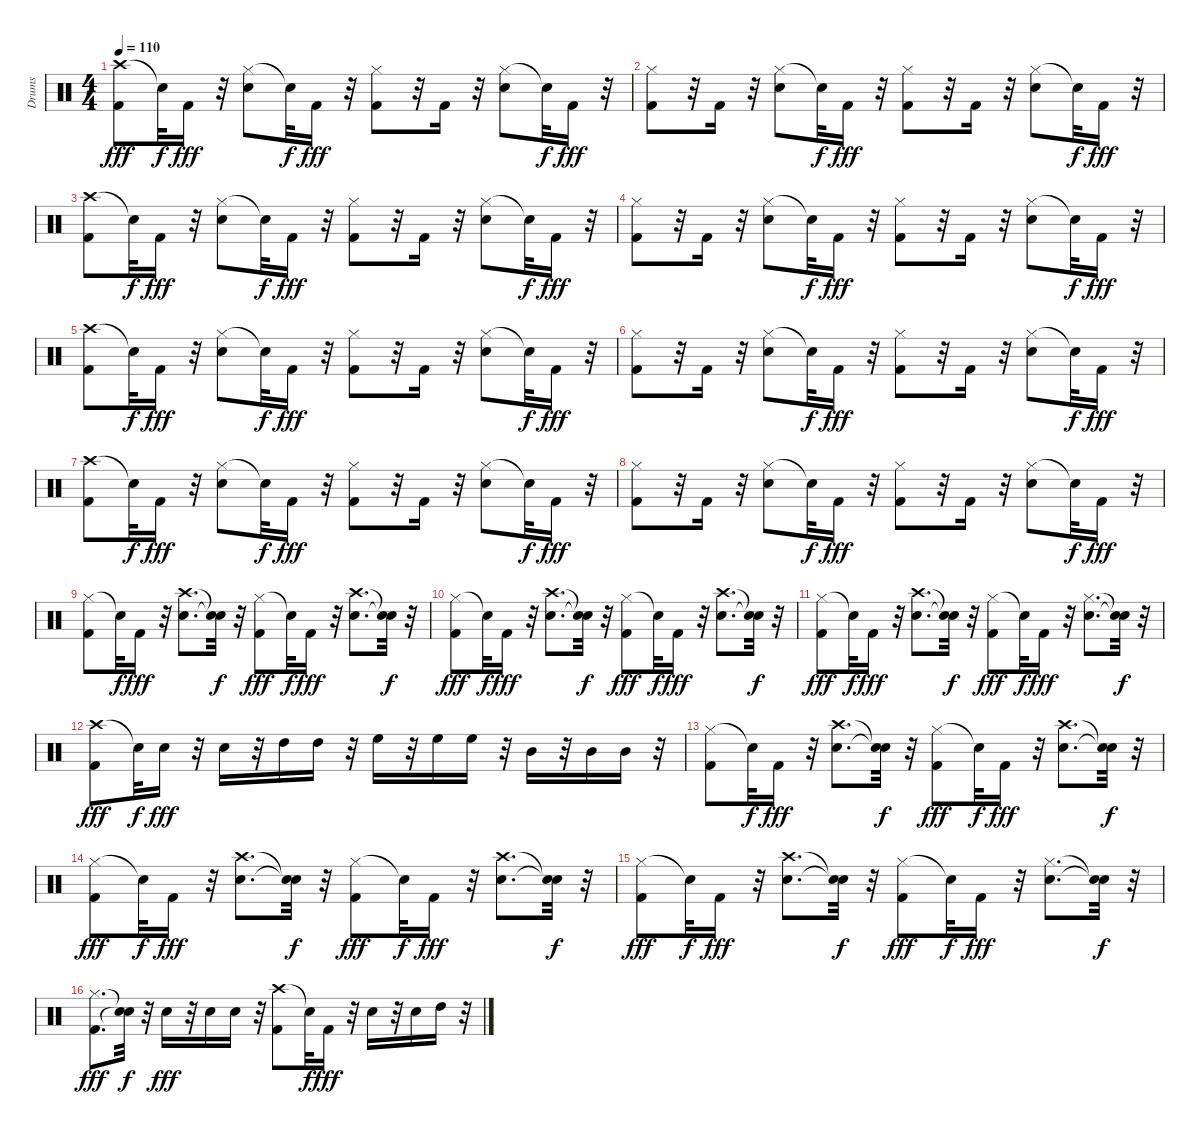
\track ("Drums" "Drums") {instrument percussion}
\staff {score}
\articulation defaults
\ts (4 4)
\tempo 110
\clef neutral
\ks c
("Crash high (hit)" "Kick (hit) 2").8{dy fff} "Snare (hit)"{t}.32{dy f} "Kick (hit) 2".16{dy fff} r.32 ("Hi-Hat (closed)" "Snare (hit) 2").8 "Snare (hit)"{t}.32{dy f} "Kick (hit) 2".16{dy fff} r.32 ("Kick (hit) 2" "Hi-Hat (closed)").8 r.32 "Kick (hit) 2".16 r.32 ("Hi-Hat (closed)" "Snare (hit) 2").8 "Snare (hit)"{t}.32{dy f} "Kick (hit) 2".16{dy fff} r.32 |
("Kick (hit) 2" "Hi-Hat (closed)").8 r.32 "Kick (hit) 2".16 r.32 ("Hi-Hat (closed)" "Snare (hit) 2").8 "Snare (hit)"{t}.32{dy f} "Kick (hit) 2".16{dy fff} r.32 ("Kick (hit) 2" "Hi-Hat (closed)").8 r.32 "Kick (hit) 2".16 r.32 ("Hi-Hat (closed)" "Snare (hit) 2").8 "Snare (hit)"{t}.32{dy f} "Kick (hit) 2".16{dy fff} r.32 |
("Crash high (hit)" "Kick (hit) 2").8 "Snare (hit)"{t}.32{dy f} "Kick (hit) 2".16{dy fff} r.32 ("Hi-Hat (closed)" "Snare (hit) 2").8 "Snare (hit)"{t}.32{dy f} "Kick (hit) 2".16{dy fff} r.32 ("Kick (hit) 2" "Hi-Hat (closed)").8 r.32 "Kick (hit) 2".16 r.32 ("Hi-Hat (closed)" "Snare (hit) 2").8 "Snare (hit)"{t}.32{dy f} "Kick (hit) 2".16{dy fff} r.32 |
("Kick (hit) 2" "Hi-Hat (closed)").8 r.32 "Kick (hit) 2".16 r.32 ("Hi-Hat (closed)" "Snare (hit) 2").8 "Snare (hit)"{t}.32{dy f} "Kick (hit) 2".16{dy fff} r.32 ("Kick (hit) 2" "Hi-Hat (closed)").8 r.32 "Kick (hit) 2".16 r.32 ("Hi-Hat (closed)" "Snare (hit) 2").8 "Snare (hit)"{t}.32{dy f} "Kick (hit) 2".16{dy fff} r.32 |
("Crash high (hit)" "Kick (hit) 2").8 "Snare (hit)"{t}.32{dy f} "Kick (hit) 2".16{dy fff} r.32 ("Hi-Hat (closed)" "Snare (hit) 2").8 "Snare (hit)"{t}.32{dy f} "Kick (hit) 2".16{dy fff} r.32 ("Kick (hit) 2" "Hi-Hat (closed)").8 r.32 "Kick (hit) 2".16 r.32 ("Hi-Hat (closed)" "Snare (hit) 2").8 "Snare (hit)"{t}.32{dy f} "Kick (hit) 2".16{dy fff} r.32 |
("Kick (hit) 2" "Hi-Hat (closed)").8 r.32 "Kick (hit) 2".16 r.32 ("Hi-Hat (closed)" "Snare (hit) 2").8 "Snare (hit)"{t}.32{dy f} "Kick (hit) 2".16{dy fff} r.32 ("Kick (hit) 2" "Hi-Hat (closed)").8 r.32 "Kick (hit) 2".16 r.32 ("Hi-Hat (closed)" "Snare (hit) 2").8 "Snare (hit)"{t}.32{dy f} "Kick (hit) 2".16{dy fff} r.32 |
("Crash high (hit)" "Kick (hit) 2").8 "Snare (hit)"{t}.32{dy f} "Kick (hit) 2".16{dy fff} r.32 ("Hi-Hat (closed)" "Snare (hit) 2").8 "Snare (hit)"{t}.32{dy f} "Kick (hit) 2".16{dy fff} r.32 ("Kick (hit) 2" "Hi-Hat (closed)").8 r.32 "Kick (hit) 2".16 r.32 ("Hi-Hat (closed)" "Snare (hit) 2").8 "Snare (hit)"{t}.32{dy f} "Kick (hit) 2".16{dy fff} r.32 |
("Kick (hit) 2" "Hi-Hat (closed)").8 r.32 "Kick (hit) 2".16 r.32 ("Hi-Hat (closed)" "Snare (hit) 2").8 "Snare (hit)"{t}.32{dy f} "Kick (hit) 2".16{dy fff} r.32 ("Kick (hit) 2" "Hi-Hat (closed)").8 r.32 "Kick (hit) 2".16 r.32 ("Hi-Hat (closed)" "Snare (hit) 2").8 "Snare (hit)"{t}.32{dy f} "Kick (hit) 2".16{dy fff} r.32 |
("Hi-Hat (closed)" "Kick (hit) 2").8 "Snare (hit)"{t}.32{dy f} "Kick (hit) 2".16{dy fff} r.32 ("Crash high (hit)" "Snare (hit) 2").8{d} ("Snare (hit)"{t} "Snare (hit)"{t}).32{dy f} r.32 ("Hi-Hat (closed)" "Kick (hit) 2").8{dy fff} "Snare (hit)"{t}.32{dy f} "Kick (hit) 2".16{dy fff} r.32 ("Crash high (hit)" "Snare (hit) 2").8{d} ("Snare (hit)"{t} "Snare (hit)"{t}).32{dy f} r.32 |
("Hi-Hat (closed)" "Kick (hit) 2").8{dy fff} "Snare (hit)"{t}.32{dy f} "Kick (hit) 2".16{dy fff} r.32 ("Crash high (hit)" "Snare (hit) 2").8{d} ("Snare (hit)"{t} "Snare (hit)"{t}).32{dy f} r.32 ("Hi-Hat (closed)" "Kick (hit) 2").8{dy fff} "Snare (hit)"{t}.32{dy f} "Kick (hit) 2".16{dy fff} r.32 ("Crash high (hit)" "Snare (hit) 2").8{d} ("Snare (hit)"{t} "Snare (hit)"{t}).32{dy f} r.32 |
("Hi-Hat (closed)" "Kick (hit) 2").8{dy fff} "Snare (hit)"{t}.32{dy f} "Kick (hit) 2".16{dy fff} r.32 ("Crash high (hit)" "Snare (hit) 2").8{d} ("Snare (hit)"{t} "Snare (hit)"{t}).32{dy f} r.32 ("Hi-Hat (closed)" "Kick (hit) 2").8{dy fff} "Snare (hit)"{t}.32{dy f} "Kick (hit) 2".16{dy fff} r.32 ("Snare (hit) 2" "Hi-Hat (closed)").8{d} ("Snare (hit)"{t} "Snare (hit)"{t}).32{dy f} r.32 |
("Crash high (hit)" "Kick (hit) 2").8{dy fff} "Snare (hit)"{t}.32{dy f} "Snare (hit) 2".16{dy fff} r.32 "Snare (hit) 2".16 r.32 "High Tom (hit)".16 "High Tom (hit)".16 r.32 "High Floor Tom (hit)".16 r.32 "High Floor Tom (hit)".16 "High Floor Tom (hit)".16 r.32 "Mid Tom (hit)".16 r.32 "Mid Tom (hit)".16 "Mid Tom (hit)".16 r.32 |
("Hi-Hat (closed)" "Kick (hit) 2").8 "Snare (hit)"{t}.32{dy f} "Kick (hit) 2".16{dy fff} r.32 ("Crash high (hit)" "Snare (hit) 2").8{d} ("Snare (hit)"{t} "Snare (hit)"{t}).32{dy f} r.32 ("Hi-Hat (closed)" "Kick (hit) 2").8{dy fff} "Snare (hit)"{t}.32{dy f} "Kick (hit) 2".16{dy fff} r.32 ("Crash high (hit)" "Snare (hit) 2").8{d} ("Snare (hit)"{t} "Snare (hit)"{t}).32{dy f} r.32 |
("Hi-Hat (closed)" "Kick (hit) 2").8{dy fff} "Snare (hit)"{t}.32{dy f} "Kick (hit) 2".16{dy fff} r.32 ("Crash high (hit)" "Snare (hit) 2").8{d} ("Snare (hit)"{t} "Snare (hit)"{t}).32{dy f} r.32 ("Hi-Hat (closed)" "Kick (hit) 2").8{dy fff} "Snare (hit)"{t}.32{dy f} "Kick (hit) 2".16{dy fff} r.32 ("Crash high (hit)" "Snare (hit) 2").8{d} ("Snare (hit)"{t} "Snare (hit)"{t}).32{dy f} r.32 |
("Hi-Hat (closed)" "Kick (hit) 2").8{dy fff} "Snare (hit)"{t}.32{dy f} "Kick (hit) 2".16{dy fff} r.32 ("Crash high (hit)" "Snare (hit) 2").8{d} ("Snare (hit)"{t} "Snare (hit)"{t}).32{dy f} r.32 ("Hi-Hat (closed)" "Kick (hit) 2").8{dy fff} "Snare (hit)"{t}.32{dy f} "Kick (hit) 2".16{dy fff} r.32 ("Snare (hit) 2" "Hi-Hat (closed)").8{d} ("Snare (hit)"{t} "Snare (hit)"{t}).32{dy f} r.32 |
("Hi-Hat (closed)" "Kick (hit) 2").8{d dy fff} ("Snare (hit)"{t} "Snare (hit)"{t}).32{dy f} r.32 "Snare (hit) 2".16{dy fff} r.32 "Snare (hit) 2".16 "Snare (hit) 2".16 r.32 ("Crash high (hit)" "Kick (hit) 2").8 "Snare (hit)"{t}.32{dy f} "Kick (hit) 2".16{dy fff} r.32 "Snare (hit) 2".16 r.32 "Snare (hit) 2".16 "High Tom (hit)".16 r.32
